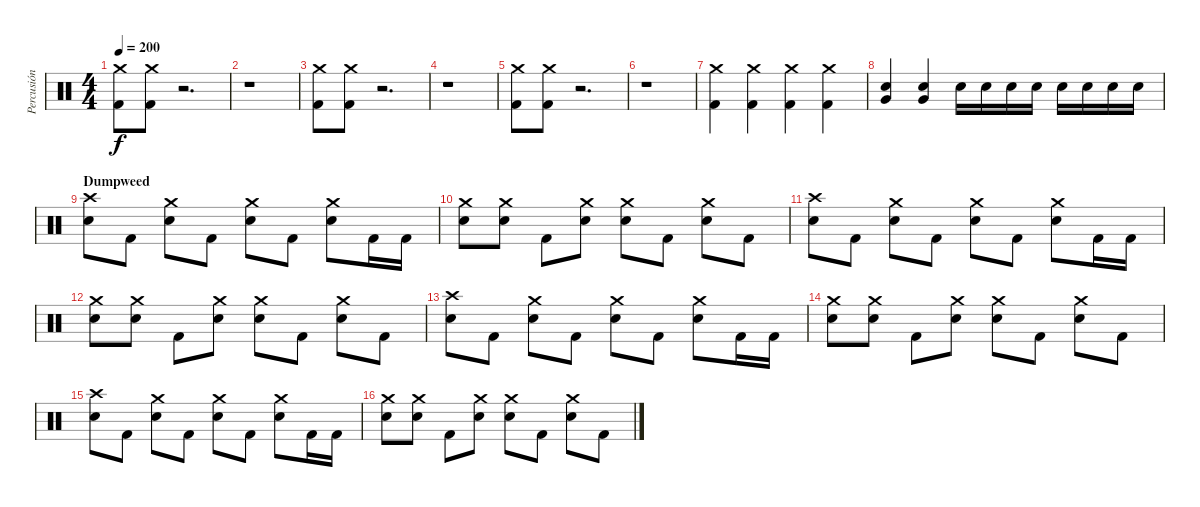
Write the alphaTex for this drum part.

\track ("Percusión" "Percusión") {instrument percussion}
\staff {score}
\articulation defaults
\ts (4 4)
\tempo 200
\clef neutral
\ks c
("Crash medium (hit)" "Kick (hit) 2").8{dy f} ("Crash medium (hit)" "Kick (hit) 2").8 r.2{d} |
r.1 |
("Crash medium (hit)" "Kick (hit) 2").8 ("Crash medium (hit)" "Kick (hit) 2").8 r.2{d} |
r.1 |
("Crash medium (hit)" "Kick (hit) 2").8 ("Crash medium (hit)" "Kick (hit) 2").8 r.2{d} |
r.1 |
("Crash medium (hit)" "Kick (hit) 2").4 ("Crash medium (hit)" "Kick (hit) 2").4 ("Crash medium (hit)" "Kick (hit) 2").4 ("Crash medium (hit)" "Kick (hit) 2").4 |
("Very Low Tom (hit)" "Electric Snare (hit)").4 ("Very Low Tom (hit)" "Electric Snare (hit)").4 "Electric Snare (hit)".16 "Electric Snare (hit)".16 "Electric Snare (hit)".16 "Electric Snare (hit)".16 "Electric Snare (hit)".16 "Electric Snare (hit)".16 "Electric Snare (hit)".16 "Electric Snare (hit)".16 |
\section ("" "Dumpweed")
("Crash high (hit)" "Electric Snare (hit)").8 "Kick (hit) 2".8 ("Crash medium (hit)" "Electric Snare (hit)").8 "Kick (hit) 2".8 ("Crash medium (hit)" "Electric Snare (hit)").8 "Kick (hit) 2".8 ("Crash medium (hit)" "Electric Snare (hit)").8 "Kick (hit) 2".16 "Kick (hit) 2".16 |
("Crash medium (hit)" "Electric Snare (hit)").8 ("Crash medium (hit)" "Electric Snare (hit)").8 "Kick (hit) 2".8 ("Crash medium (hit)" "Electric Snare (hit)").8 ("Crash medium (hit)" "Electric Snare (hit)").8 "Kick (hit) 2".8 ("Crash medium (hit)" "Electric Snare (hit)").8 "Kick (hit) 2".8 |
("Crash high (hit)" "Electric Snare (hit)").8 "Kick (hit) 2".8 ("Crash medium (hit)" "Electric Snare (hit)").8 "Kick (hit) 2".8 ("Crash medium (hit)" "Electric Snare (hit)").8 "Kick (hit) 2".8 ("Crash medium (hit)" "Electric Snare (hit)").8 "Kick (hit) 2".16 "Kick (hit) 2".16 |
("Crash medium (hit)" "Electric Snare (hit)").8 ("Crash medium (hit)" "Electric Snare (hit)").8 "Kick (hit) 2".8 ("Crash medium (hit)" "Electric Snare (hit)").8 ("Crash medium (hit)" "Electric Snare (hit)").8 "Kick (hit) 2".8 ("Crash medium (hit)" "Electric Snare (hit)").8 "Kick (hit) 2".8 |
("Crash high (hit)" "Electric Snare (hit)").8 "Kick (hit) 2".8 ("Crash medium (hit)" "Electric Snare (hit)").8 "Kick (hit) 2".8 ("Crash medium (hit)" "Electric Snare (hit)").8 "Kick (hit) 2".8 ("Crash medium (hit)" "Electric Snare (hit)").8 "Kick (hit) 2".16 "Kick (hit) 2".16 |
("Crash medium (hit)" "Electric Snare (hit)").8 ("Crash medium (hit)" "Electric Snare (hit)").8 "Kick (hit) 2".8 ("Crash medium (hit)" "Electric Snare (hit)").8 ("Crash medium (hit)" "Electric Snare (hit)").8 "Kick (hit) 2".8 ("Crash medium (hit)" "Electric Snare (hit)").8 "Kick (hit) 2".8 |
("Crash high (hit)" "Electric Snare (hit)").8 "Kick (hit) 2".8 ("Crash medium (hit)" "Electric Snare (hit)").8 "Kick (hit) 2".8 ("Crash medium (hit)" "Electric Snare (hit)").8 "Kick (hit) 2".8 ("Crash medium (hit)" "Electric Snare (hit)").8 "Kick (hit) 2".16 "Kick (hit) 2".16 |
("Crash medium (hit)" "Electric Snare (hit)").8 ("Crash medium (hit)" "Electric Snare (hit)").8 "Kick (hit) 2".8 ("Crash medium (hit)" "Electric Snare (hit)").8 ("Crash medium (hit)" "Electric Snare (hit)").8 "Kick (hit) 2".8 ("Crash medium (hit)" "Electric Snare (hit)").8 "Kick (hit) 2".8
